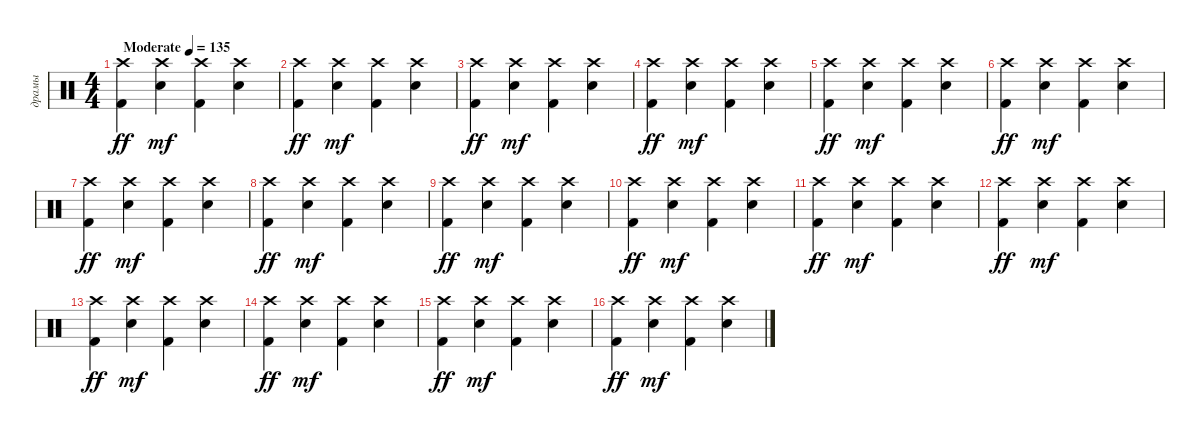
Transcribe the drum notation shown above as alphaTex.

\track ("драмы" "драмы") {instrument percussion}
\staff {score}
\articulation defaults
\ts (4 4)
\tempo (135 "Moderate")
\clef neutral
\ks c
("Kick (hit) 2" "Crash high (hit)").4{dy ff} ("Snare (hit) 2" "Crash high (hit)").4{dy mf} ("Kick (hit) 2" "Crash high (hit)").4 ("Snare (hit) 2" "Crash high (hit)").4 |
("Kick (hit) 2" "Crash high (hit)").4{dy ff} ("Snare (hit) 2" "Crash high (hit)").4{dy mf} ("Kick (hit) 2" "Crash high (hit)").4 ("Snare (hit) 2" "Crash high (hit)").4 |
("Kick (hit) 2" "Crash high (hit)").4{dy ff} ("Snare (hit) 2" "Crash high (hit)").4{dy mf} ("Kick (hit) 2" "Crash high (hit)").4 ("Snare (hit) 2" "Crash high (hit)").4 |
("Kick (hit) 2" "Crash high (hit)").4{dy ff} ("Snare (hit) 2" "Crash high (hit)").4{dy mf} ("Kick (hit) 2" "Crash high (hit)").4 ("Snare (hit) 2" "Crash high (hit)").4 |
("Kick (hit) 2" "Crash high (hit)").4{dy ff} ("Snare (hit) 2" "Crash high (hit)").4{dy mf} ("Kick (hit) 2" "Crash high (hit)").4 ("Snare (hit) 2" "Crash high (hit)").4 |
("Kick (hit) 2" "Crash high (hit)").4{dy ff} ("Snare (hit) 2" "Crash high (hit)").4{dy mf} ("Kick (hit) 2" "Crash high (hit)").4 ("Snare (hit) 2" "Crash high (hit)").4 |
("Kick (hit) 2" "Crash high (hit)").4{dy ff} ("Snare (hit) 2" "Crash high (hit)").4{dy mf} ("Kick (hit) 2" "Crash high (hit)").4 ("Snare (hit) 2" "Crash high (hit)").4 |
("Kick (hit) 2" "Crash high (hit)").4{dy ff} ("Snare (hit) 2" "Crash high (hit)").4{dy mf} ("Kick (hit) 2" "Crash high (hit)").4 ("Snare (hit) 2" "Crash high (hit)").4 |
("Kick (hit) 2" "Crash high (hit)").4{dy ff} ("Snare (hit) 2" "Crash high (hit)").4{dy mf} ("Kick (hit) 2" "Crash high (hit)").4 ("Snare (hit) 2" "Crash high (hit)").4 |
("Kick (hit) 2" "Crash high (hit)").4{dy ff} ("Snare (hit) 2" "Crash high (hit)").4{dy mf} ("Kick (hit) 2" "Crash high (hit)").4 ("Snare (hit) 2" "Crash high (hit)").4 |
("Kick (hit) 2" "Crash high (hit)").4{dy ff} ("Snare (hit) 2" "Crash high (hit)").4{dy mf} ("Kick (hit) 2" "Crash high (hit)").4 ("Snare (hit) 2" "Crash high (hit)").4 |
("Kick (hit) 2" "Crash high (hit)").4{dy ff} ("Snare (hit) 2" "Crash high (hit)").4{dy mf} ("Kick (hit) 2" "Crash high (hit)").4 ("Snare (hit) 2" "Crash high (hit)").4 |
("Kick (hit) 2" "Crash high (hit)").4{dy ff} ("Snare (hit) 2" "Crash high (hit)").4{dy mf} ("Kick (hit) 2" "Crash high (hit)").4 ("Snare (hit) 2" "Crash high (hit)").4 |
("Kick (hit) 2" "Crash high (hit)").4{dy ff} ("Snare (hit) 2" "Crash high (hit)").4{dy mf} ("Kick (hit) 2" "Crash high (hit)").4 ("Snare (hit) 2" "Crash high (hit)").4 |
("Kick (hit) 2" "Crash high (hit)").4{dy ff} ("Snare (hit) 2" "Crash high (hit)").4{dy mf} ("Kick (hit) 2" "Crash high (hit)").4 ("Snare (hit) 2" "Crash high (hit)").4 |
("Kick (hit) 2" "Crash high (hit)").4{dy ff} ("Snare (hit) 2" "Crash high (hit)").4{dy mf} ("Kick (hit) 2" "Crash high (hit)").4 ("Snare (hit) 2" "Crash high (hit)").4
